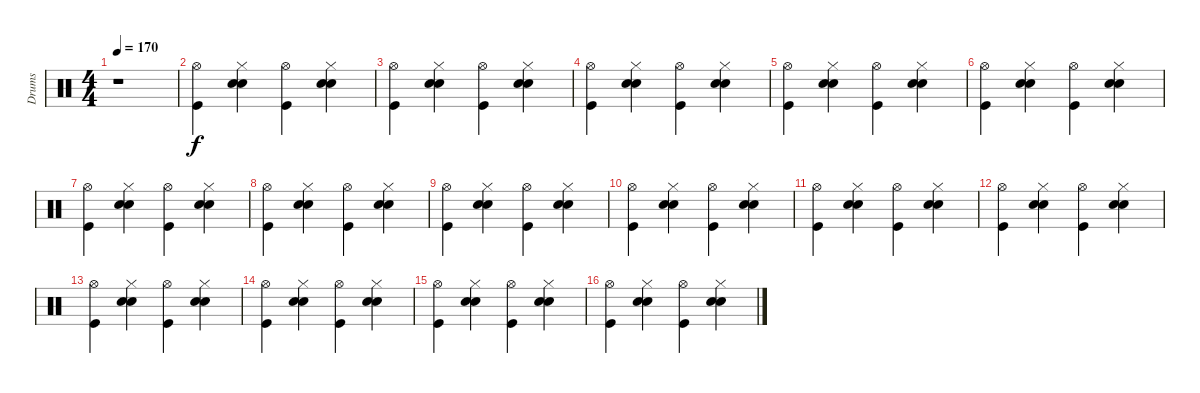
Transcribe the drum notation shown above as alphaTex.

\track ("Drums" "Drums") {instrument percussion}
\staff {score}
\articulation defaults
\ts (4 4)
\tempo 170
\clef neutral
\ks c
r.1{dy f} |
("Hi-Hat (open)" "Kick (hit)").4 ("Hi-Hat (closed)" "Snare (hit) 2" "Electric Snare (hit)").4 ("Hi-Hat (open)" "Kick (hit)").4 ("Hi-Hat (closed)" "Snare (hit) 2" "Electric Snare (hit)").4 |
("Hi-Hat (open)" "Kick (hit)").4 ("Hi-Hat (closed)" "Snare (hit) 2" "Electric Snare (hit)").4 ("Hi-Hat (open)" "Kick (hit)").4 ("Hi-Hat (closed)" "Snare (hit) 2" "Electric Snare (hit)").4 |
("Hi-Hat (open)" "Kick (hit)").4 ("Hi-Hat (closed)" "Snare (hit) 2" "Electric Snare (hit)").4 ("Hi-Hat (open)" "Kick (hit)").4 ("Hi-Hat (closed)" "Snare (hit) 2" "Electric Snare (hit)").4 |
("Hi-Hat (open)" "Kick (hit)").4 ("Hi-Hat (closed)" "Snare (hit) 2" "Electric Snare (hit)").4 ("Hi-Hat (open)" "Kick (hit)").4 ("Hi-Hat (closed)" "Snare (hit) 2" "Electric Snare (hit)").4 |
("Hi-Hat (open)" "Kick (hit)").4 ("Hi-Hat (closed)" "Snare (hit) 2" "Electric Snare (hit)").4 ("Hi-Hat (open)" "Kick (hit)").4 ("Hi-Hat (closed)" "Snare (hit) 2" "Electric Snare (hit)").4 |
("Hi-Hat (open)" "Kick (hit)").4 ("Hi-Hat (closed)" "Snare (hit) 2" "Electric Snare (hit)").4 ("Hi-Hat (open)" "Kick (hit)").4 ("Hi-Hat (closed)" "Snare (hit) 2" "Electric Snare (hit)").4 |
("Hi-Hat (open)" "Kick (hit)").4 ("Hi-Hat (closed)" "Snare (hit) 2" "Electric Snare (hit)").4 ("Hi-Hat (open)" "Kick (hit)").4 ("Hi-Hat (closed)" "Snare (hit) 2" "Electric Snare (hit)").4 |
("Hi-Hat (open)" "Kick (hit)").4 ("Hi-Hat (closed)" "Snare (hit) 2" "Electric Snare (hit)").4 ("Hi-Hat (open)" "Kick (hit)").4 ("Hi-Hat (closed)" "Snare (hit) 2" "Electric Snare (hit)").4 |
("Hi-Hat (open)" "Kick (hit)").4 ("Hi-Hat (closed)" "Snare (hit) 2" "Electric Snare (hit)").4 ("Hi-Hat (open)" "Kick (hit)").4 ("Hi-Hat (closed)" "Snare (hit) 2" "Electric Snare (hit)").4 |
("Hi-Hat (open)" "Kick (hit)").4 ("Hi-Hat (closed)" "Snare (hit) 2" "Electric Snare (hit)").4 ("Hi-Hat (open)" "Kick (hit)").4 ("Hi-Hat (closed)" "Snare (hit) 2" "Electric Snare (hit)").4 |
("Hi-Hat (open)" "Kick (hit)").4 ("Hi-Hat (closed)" "Snare (hit) 2" "Electric Snare (hit)").4 ("Hi-Hat (open)" "Kick (hit)").4 ("Hi-Hat (closed)" "Snare (hit) 2" "Electric Snare (hit)").4 |
("Hi-Hat (open)" "Kick (hit)").4 ("Hi-Hat (closed)" "Snare (hit) 2" "Electric Snare (hit)").4 ("Hi-Hat (open)" "Kick (hit)").4 ("Hi-Hat (closed)" "Snare (hit) 2" "Electric Snare (hit)").4 |
("Hi-Hat (open)" "Kick (hit)").4 ("Hi-Hat (closed)" "Snare (hit) 2" "Electric Snare (hit)").4 ("Hi-Hat (open)" "Kick (hit)").4 ("Hi-Hat (closed)" "Snare (hit) 2" "Electric Snare (hit)").4 |
("Hi-Hat (open)" "Kick (hit)").4 ("Hi-Hat (closed)" "Snare (hit) 2" "Electric Snare (hit)").4 ("Hi-Hat (open)" "Kick (hit)").4 ("Hi-Hat (closed)" "Snare (hit) 2" "Electric Snare (hit)").4 |
("Hi-Hat (open)" "Kick (hit)").4 ("Hi-Hat (closed)" "Snare (hit) 2" "Electric Snare (hit)").4 ("Hi-Hat (open)" "Kick (hit)").4 ("Hi-Hat (closed)" "Snare (hit) 2" "Electric Snare (hit)").4
